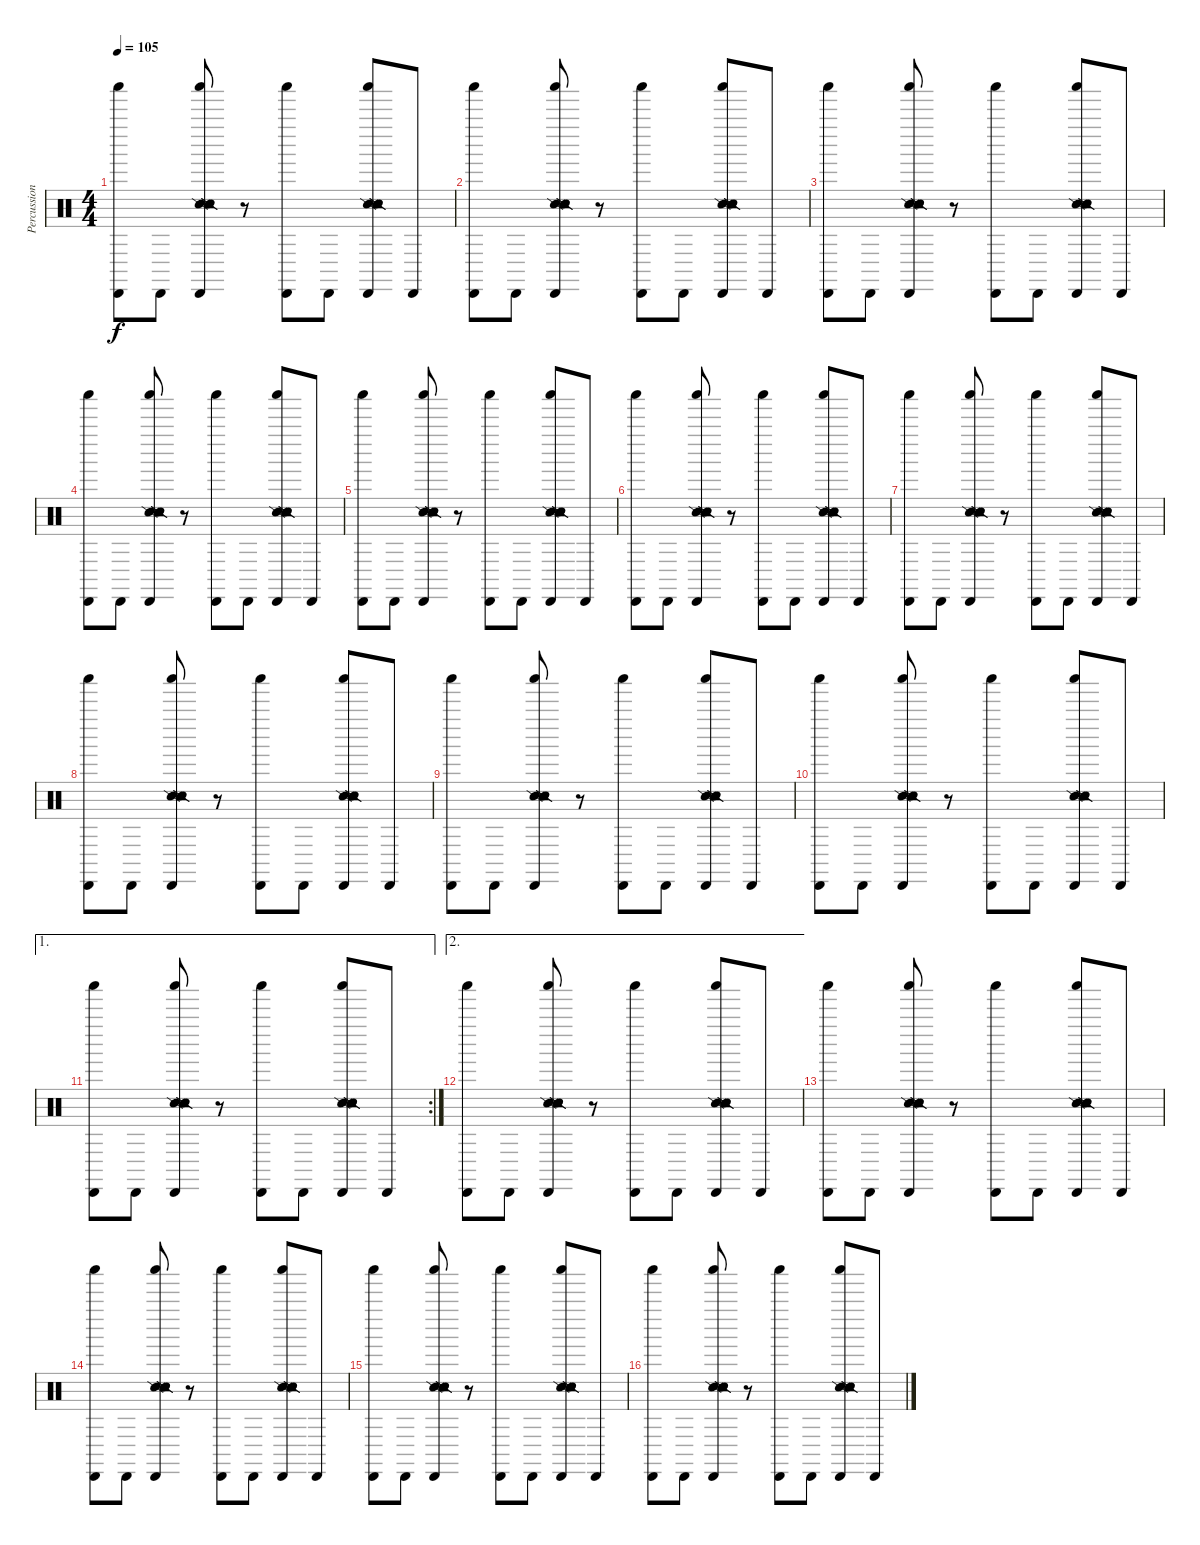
\track ("Percussions" "Percussion") {instrument percussion}
\staff {score}
\articulation defaults
\ts (4 4)
\tempo 105
\clef neutral
\ks c
("Cabasa (hit)" "Shaker (hit)").8{dy f} "Cabasa (hit)".8 ("Cabasa (hit)" "Shaker (hit)" "Snare (side stick) 2" "Snare (side stick) 2" "Snare (side stick) 2" "Tambourine (hit)").8 r.8 ("Cabasa (hit)" "Shaker (hit)").8 "Cabasa (hit)".8 ("Cabasa (hit)" "Shaker (hit)" "Snare (side stick) 2" "Snare (side stick) 2" "Snare (side stick) 2" "Tambourine (hit)").8 "Cabasa (hit)".8 |
("Cabasa (hit)" "Shaker (hit)").8 "Cabasa (hit)".8 ("Cabasa (hit)" "Shaker (hit)" "Snare (side stick) 2" "Snare (side stick) 2" "Snare (side stick) 2" "Tambourine (hit)").8 r.8 ("Cabasa (hit)" "Shaker (hit)").8 "Cabasa (hit)".8 ("Cabasa (hit)" "Shaker (hit)" "Snare (side stick) 2" "Snare (side stick) 2" "Snare (side stick) 2" "Tambourine (hit)").8 "Cabasa (hit)".8 |
("Cabasa (hit)" "Shaker (hit)").8 "Cabasa (hit)".8 ("Cabasa (hit)" "Shaker (hit)" "Snare (side stick) 2" "Snare (side stick) 2" "Snare (side stick) 2" "Tambourine (hit)").8 r.8 ("Cabasa (hit)" "Shaker (hit)").8 "Cabasa (hit)".8 ("Cabasa (hit)" "Shaker (hit)" "Snare (side stick) 2" "Snare (side stick) 2" "Snare (side stick) 2" "Tambourine (hit)").8 "Cabasa (hit)".8 |
("Cabasa (hit)" "Shaker (hit)").8 "Cabasa (hit)".8 ("Cabasa (hit)" "Shaker (hit)" "Snare (side stick) 2" "Snare (side stick) 2" "Snare (side stick) 2" "Tambourine (hit)").8 r.8 ("Cabasa (hit)" "Shaker (hit)").8 "Cabasa (hit)".8 ("Cabasa (hit)" "Shaker (hit)" "Snare (side stick) 2" "Snare (side stick) 2" "Snare (side stick) 2" "Tambourine (hit)").8 "Cabasa (hit)".8 |
("Cabasa (hit)" "Shaker (hit)").8 "Cabasa (hit)".8 ("Cabasa (hit)" "Shaker (hit)" "Snare (side stick) 2" "Snare (side stick) 2" "Snare (side stick) 2" "Tambourine (hit)").8 r.8 ("Cabasa (hit)" "Shaker (hit)").8 "Cabasa (hit)".8 ("Cabasa (hit)" "Shaker (hit)" "Snare (side stick) 2" "Snare (side stick) 2" "Snare (side stick) 2" "Tambourine (hit)").8 "Cabasa (hit)".8 |
("Cabasa (hit)" "Shaker (hit)").8 "Cabasa (hit)".8 ("Cabasa (hit)" "Shaker (hit)" "Snare (side stick) 2" "Snare (side stick) 2" "Snare (side stick) 2" "Tambourine (hit)").8 r.8 ("Cabasa (hit)" "Shaker (hit)").8 "Cabasa (hit)".8 ("Cabasa (hit)" "Shaker (hit)" "Snare (side stick) 2" "Snare (side stick) 2" "Snare (side stick) 2" "Tambourine (hit)").8 "Cabasa (hit)".8 |
("Cabasa (hit)" "Shaker (hit)").8 "Cabasa (hit)".8 ("Cabasa (hit)" "Shaker (hit)" "Snare (side stick) 2" "Snare (side stick) 2" "Snare (side stick) 2" "Tambourine (hit)").8 r.8 ("Cabasa (hit)" "Shaker (hit)").8 "Cabasa (hit)".8 ("Cabasa (hit)" "Shaker (hit)" "Snare (side stick) 2" "Snare (side stick) 2" "Snare (side stick) 2" "Tambourine (hit)").8 "Cabasa (hit)".8 |
("Cabasa (hit)" "Shaker (hit)").8 "Cabasa (hit)".8 ("Cabasa (hit)" "Shaker (hit)" "Snare (side stick) 2" "Snare (side stick) 2" "Snare (side stick) 2" "Tambourine (hit)").8 r.8 ("Cabasa (hit)" "Shaker (hit)").8 "Cabasa (hit)".8 ("Cabasa (hit)" "Shaker (hit)" "Snare (side stick) 2" "Snare (side stick) 2" "Snare (side stick) 2" "Tambourine (hit)").8 "Cabasa (hit)".8 |
("Cabasa (hit)" "Shaker (hit)").8 "Cabasa (hit)".8 ("Cabasa (hit)" "Shaker (hit)" "Snare (side stick) 2" "Snare (side stick) 2" "Snare (side stick) 2" "Tambourine (hit)").8 r.8 ("Cabasa (hit)" "Shaker (hit)").8 "Cabasa (hit)".8 ("Cabasa (hit)" "Shaker (hit)" "Snare (side stick) 2" "Snare (side stick) 2" "Snare (side stick) 2" "Tambourine (hit)").8 "Cabasa (hit)".8 |
("Cabasa (hit)" "Shaker (hit)").8 "Cabasa (hit)".8 ("Cabasa (hit)" "Shaker (hit)" "Snare (side stick) 2" "Snare (side stick) 2" "Snare (side stick) 2" "Tambourine (hit)").8 r.8 ("Cabasa (hit)" "Shaker (hit)").8 "Cabasa (hit)".8 ("Cabasa (hit)" "Shaker (hit)" "Snare (side stick) 2" "Snare (side stick) 2" "Snare (side stick) 2" "Tambourine (hit)").8 "Cabasa (hit)".8 |
\ae 1
\rc 2
("Cabasa (hit)" "Shaker (hit)").8 "Cabasa (hit)".8 ("Cabasa (hit)" "Shaker (hit)" "Snare (side stick) 2" "Snare (side stick) 2" "Snare (side stick) 2" "Tambourine (hit)").8 r.8 ("Cabasa (hit)" "Shaker (hit)").8 "Cabasa (hit)".8 ("Cabasa (hit)" "Shaker (hit)" "Snare (side stick) 2" "Snare (side stick) 2" "Snare (side stick) 2" "Tambourine (hit)").8 "Cabasa (hit)".8 |
\ae 2
("Cabasa (hit)" "Shaker (hit)").8 "Cabasa (hit)".8 ("Cabasa (hit)" "Shaker (hit)" "Snare (side stick) 2" "Snare (side stick) 2" "Snare (side stick) 2" "Tambourine (hit)").8 r.8 ("Cabasa (hit)" "Shaker (hit)").8 "Cabasa (hit)".8 ("Cabasa (hit)" "Shaker (hit)" "Snare (side stick) 2" "Snare (side stick) 2" "Snare (side stick) 2" "Tambourine (hit)").8 "Cabasa (hit)".8 |
("Cabasa (hit)" "Shaker (hit)").8 "Cabasa (hit)".8 ("Cabasa (hit)" "Shaker (hit)" "Snare (side stick) 2" "Snare (side stick) 2" "Snare (side stick) 2" "Tambourine (hit)").8 r.8 ("Cabasa (hit)" "Shaker (hit)").8 "Cabasa (hit)".8 ("Cabasa (hit)" "Shaker (hit)" "Snare (side stick) 2" "Snare (side stick) 2" "Snare (side stick) 2" "Tambourine (hit)").8 "Cabasa (hit)".8 |
("Cabasa (hit)" "Shaker (hit)").8 "Cabasa (hit)".8 ("Cabasa (hit)" "Shaker (hit)" "Snare (side stick) 2" "Snare (side stick) 2" "Snare (side stick) 2" "Tambourine (hit)").8 r.8 ("Cabasa (hit)" "Shaker (hit)").8 "Cabasa (hit)".8 ("Cabasa (hit)" "Shaker (hit)" "Snare (side stick) 2" "Snare (side stick) 2" "Snare (side stick) 2" "Tambourine (hit)").8 "Cabasa (hit)".8 |
("Cabasa (hit)" "Shaker (hit)").8 "Cabasa (hit)".8 ("Cabasa (hit)" "Shaker (hit)" "Snare (side stick) 2" "Snare (side stick) 2" "Snare (side stick) 2" "Tambourine (hit)").8 r.8 ("Cabasa (hit)" "Shaker (hit)").8 "Cabasa (hit)".8 ("Cabasa (hit)" "Shaker (hit)" "Snare (side stick) 2" "Snare (side stick) 2" "Snare (side stick) 2" "Tambourine (hit)").8 "Cabasa (hit)".8 |
("Cabasa (hit)" "Shaker (hit)").8 "Cabasa (hit)".8 ("Cabasa (hit)" "Shaker (hit)" "Snare (side stick) 2" "Snare (side stick) 2" "Snare (side stick) 2" "Tambourine (hit)").8 r.8 ("Cabasa (hit)" "Shaker (hit)").8 "Cabasa (hit)".8 ("Cabasa (hit)" "Shaker (hit)" "Snare (side stick) 2" "Snare (side stick) 2" "Snare (side stick) 2" "Tambourine (hit)").8 "Cabasa (hit)".8
